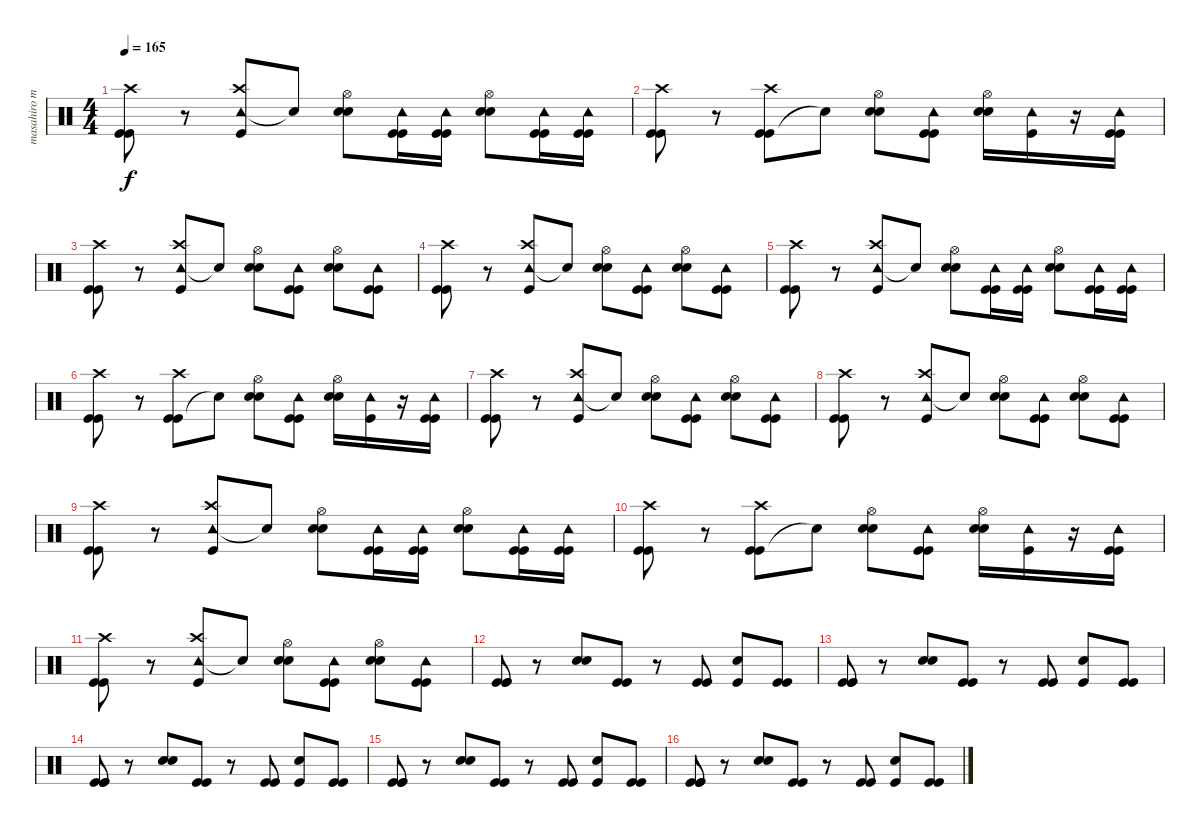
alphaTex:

\track ("masahiro muta" "masahiro m") {instrument percussion}
\staff {score}
\articulation defaults
\ts (4 4)
\tempo 165
\clef neutral
\ks c
("Kick (hit)" "Kick (hit)" "Crash high (hit)").8{dy f} r.8 ("Tambourine (hit)" "Kick (hit)" "Crash high (hit)").8 "Snare (hit)"{t}.8 ("Electric Snare (hit)" "Hi-Hat (open)" "Electric Snare (hit)").8 ("Tambourine (hit)" "Kick (hit)" "Kick (hit)").16 ("Kick (hit)" "Tambourine (hit)" "Kick (hit)").16 ("Hi-Hat (open)" "Electric Snare (hit)" "Electric Snare (hit)").8 ("Kick (hit)" "Tambourine (hit)" "Kick (hit)").16 ("Kick (hit)" "Tambourine (hit)" "Kick (hit)").16 |
("Kick (hit)" "Crash high (hit)" "Kick (hit)").8 r.8 ("Kick (hit)" "Crash high (hit)" "Kick (hit)").8 "Snare (hit)"{t}.8 ("Electric Snare (hit)" "Hi-Hat (open)" "Electric Snare (hit)").8 ("Kick (hit)" "Tambourine (hit)" "Kick (hit)").8 ("Electric Snare (hit)" "Hi-Hat (open)" "Electric Snare (hit)").16 ("Kick (hit)" "Tambourine (hit)").16 r.16 ("Tambourine (hit)" "Kick (hit)" "Kick (hit)").16 |
("Kick (hit)" "Kick (hit)" "Crash high (hit)").8 r.8 ("Tambourine (hit)" "Kick (hit)" "Crash high (hit)").8 "Snare (hit)"{t}.8 ("Electric Snare (hit)" "Hi-Hat (open)" "Electric Snare (hit)").8 ("Kick (hit)" "Tambourine (hit)" "Kick (hit)").8 ("Hi-Hat (open)" "Electric Snare (hit)" "Electric Snare (hit)").8 ("Kick (hit)" "Tambourine (hit)" "Kick (hit)").8 |
("Kick (hit)" "Kick (hit)" "Crash high (hit)").8 r.8 ("Tambourine (hit)" "Kick (hit)" "Crash high (hit)").8 "Snare (hit)"{t}.8 ("Electric Snare (hit)" "Hi-Hat (open)" "Electric Snare (hit)").8 ("Kick (hit)" "Tambourine (hit)" "Kick (hit)").8 ("Hi-Hat (open)" "Electric Snare (hit)" "Electric Snare (hit)").8 ("Kick (hit)" "Tambourine (hit)" "Kick (hit)").8 |
("Kick (hit)" "Kick (hit)" "Crash high (hit)").8 r.8 ("Tambourine (hit)" "Kick (hit)" "Crash high (hit)").8 "Snare (hit)"{t}.8 ("Electric Snare (hit)" "Hi-Hat (open)" "Electric Snare (hit)").8 ("Tambourine (hit)" "Kick (hit)" "Kick (hit)").16 ("Kick (hit)" "Tambourine (hit)" "Kick (hit)").16 ("Hi-Hat (open)" "Electric Snare (hit)" "Electric Snare (hit)").8 ("Kick (hit)" "Tambourine (hit)" "Kick (hit)").16 ("Kick (hit)" "Tambourine (hit)" "Kick (hit)").16 |
("Kick (hit)" "Crash high (hit)" "Kick (hit)").8 r.8 ("Kick (hit)" "Crash high (hit)" "Kick (hit)").8 "Snare (hit)"{t}.8 ("Electric Snare (hit)" "Hi-Hat (open)" "Electric Snare (hit)").8 ("Kick (hit)" "Tambourine (hit)" "Kick (hit)").8 ("Electric Snare (hit)" "Hi-Hat (open)" "Electric Snare (hit)").16 ("Kick (hit)" "Tambourine (hit)").16 r.16 ("Tambourine (hit)" "Kick (hit)" "Kick (hit)").16 |
("Kick (hit)" "Kick (hit)" "Crash high (hit)").8 r.8 ("Tambourine (hit)" "Kick (hit)" "Crash high (hit)").8 "Snare (hit)"{t}.8 ("Electric Snare (hit)" "Hi-Hat (open)" "Electric Snare (hit)").8 ("Kick (hit)" "Tambourine (hit)" "Kick (hit)").8 ("Hi-Hat (open)" "Electric Snare (hit)" "Electric Snare (hit)").8 ("Kick (hit)" "Tambourine (hit)" "Kick (hit)").8 |
("Kick (hit)" "Kick (hit)" "Crash high (hit)").8 r.8 ("Tambourine (hit)" "Kick (hit)" "Crash high (hit)").8 "Snare (hit)"{t}.8 ("Electric Snare (hit)" "Hi-Hat (open)" "Electric Snare (hit)").8 ("Kick (hit)" "Tambourine (hit)" "Kick (hit)").8 ("Hi-Hat (open)" "Electric Snare (hit)" "Electric Snare (hit)").8 ("Kick (hit)" "Tambourine (hit)" "Kick (hit)").8 |
("Kick (hit)" "Kick (hit)" "Crash high (hit)").8 r.8 ("Tambourine (hit)" "Kick (hit)" "Crash high (hit)").8 "Snare (hit)"{t}.8 ("Electric Snare (hit)" "Hi-Hat (open)" "Electric Snare (hit)").8 ("Tambourine (hit)" "Kick (hit)" "Kick (hit)").16 ("Kick (hit)" "Tambourine (hit)" "Kick (hit)").16 ("Hi-Hat (open)" "Electric Snare (hit)" "Electric Snare (hit)").8 ("Kick (hit)" "Tambourine (hit)" "Kick (hit)").16 ("Kick (hit)" "Tambourine (hit)" "Kick (hit)").16 |
("Kick (hit)" "Crash high (hit)" "Kick (hit)").8 r.8 ("Kick (hit)" "Crash high (hit)" "Kick (hit)").8 "Snare (hit)"{t}.8 ("Electric Snare (hit)" "Hi-Hat (open)" "Electric Snare (hit)").8 ("Kick (hit)" "Tambourine (hit)" "Kick (hit)").8 ("Electric Snare (hit)" "Hi-Hat (open)" "Electric Snare (hit)").16 ("Kick (hit)" "Tambourine (hit)").16 r.16 ("Tambourine (hit)" "Kick (hit)" "Kick (hit)").16 |
("Kick (hit)" "Kick (hit)" "Crash high (hit)").8 r.8 ("Tambourine (hit)" "Kick (hit)" "Crash high (hit)").8 "Snare (hit)"{t}.8 ("Electric Snare (hit)" "Hi-Hat (open)" "Electric Snare (hit)").8 ("Kick (hit)" "Tambourine (hit)" "Kick (hit)").8 ("Hi-Hat (open)" "Electric Snare (hit)" "Electric Snare (hit)").8 ("Kick (hit)" "Tambourine (hit)" "Kick (hit)").8 |
("Kick (hit)" "Kick (hit)" "Kick (hit)").8 r.8 ("Electric Snare (hit)" "Electric Snare (hit)").8 ("Kick (hit)" "Kick (hit)").8 r.8 ("Kick (hit)" "Kick (hit)").8 ("Electric Snare (hit)" "Kick (hit)").8 ("Kick (hit)" "Kick (hit)").8 |
("Kick (hit)" "Kick (hit)" "Kick (hit)").8 r.8 ("Electric Snare (hit)" "Electric Snare (hit)").8 ("Kick (hit)" "Kick (hit)").8 r.8 ("Kick (hit)" "Kick (hit)").8 ("Electric Snare (hit)" "Kick (hit)").8 ("Kick (hit)" "Kick (hit)").8 |
("Kick (hit)" "Kick (hit)" "Kick (hit)").8 r.8 ("Electric Snare (hit)" "Electric Snare (hit)").8 ("Kick (hit)" "Kick (hit)").8 r.8 ("Kick (hit)" "Kick (hit)").8 ("Electric Snare (hit)" "Kick (hit)").8 ("Kick (hit)" "Kick (hit)").8 |
("Kick (hit)" "Kick (hit)" "Kick (hit)").8 r.8 ("Electric Snare (hit)" "Electric Snare (hit)").8 ("Kick (hit)" "Kick (hit)").8 r.8 ("Kick (hit)" "Kick (hit)").8 ("Electric Snare (hit)" "Kick (hit)").8 ("Kick (hit)" "Kick (hit)").8 |
("Kick (hit)" "Kick (hit)" "Kick (hit)").8 r.8 ("Electric Snare (hit)" "Electric Snare (hit)").8 ("Kick (hit)" "Kick (hit)").8 r.8 ("Kick (hit)" "Kick (hit)").8 ("Electric Snare (hit)" "Kick (hit)").8 ("Kick (hit)" "Kick (hit)").8
